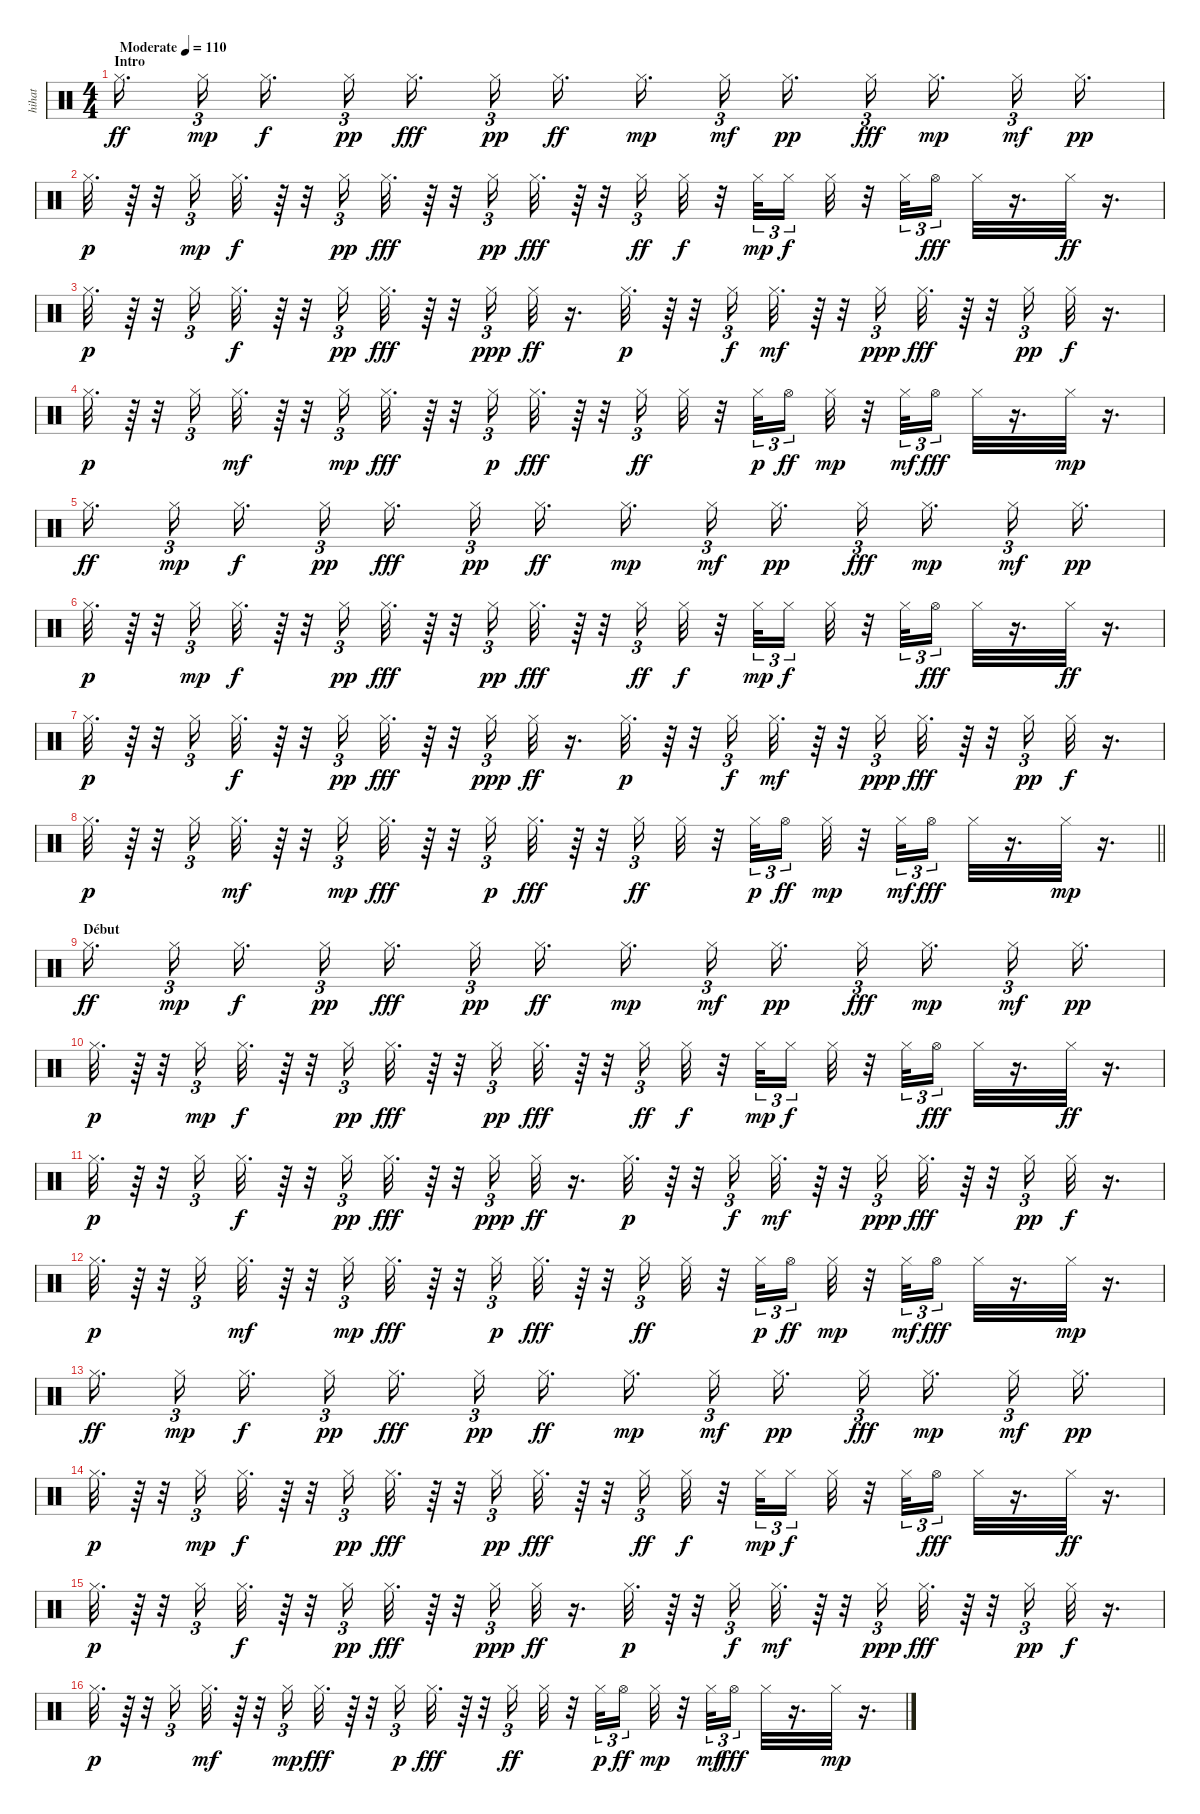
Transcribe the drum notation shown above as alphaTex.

\track ("hihat   " "hihat   ") {instrument percussion}
\staff {score}
\articulation defaults
\ts (4 4)
\section ("" "Intro")
\tempo (110 "Moderate")
\clef neutral
\ks c "Hi-Hat (closed)".16{d dy ff beam splitsecondary} "Hi-Hat (closed)".16{tu (3 2) dy mp beam splitsecondary} "Hi-Hat (closed)".16{d dy f} "Hi-Hat (closed)".16{tu (3 2) dy pp} "Hi-Hat (closed)".16{d dy fff beam splitsecondary} "Hi-Hat (closed)".16{tu (3 2) dy pp} "Hi-Hat (closed)".16{d dy ff} "Hi-Hat (closed)".16{d dy mp beam splitsecondary} "Hi-Hat (closed)".16{tu (3 2) dy mf beam splitsecondary} "Hi-Hat (closed)".16{d dy pp} "Hi-Hat (closed)".16{tu (3 2) dy fff} "Hi-Hat (closed)".16{d dy mp beam splitsecondary} "Hi-Hat (closed)".16{tu (3 2) dy mf} "Hi-Hat (closed)".16{d dy pp}
|
"Hi-Hat (closed)".32{d dy p} r.64 r.32 "Hi-Hat (closed)".16{tu (3 2) dy mp} "Hi-Hat (closed)".32{d dy f} r.64 r.32 "Hi-Hat (closed)".16{tu (3 2) dy pp} "Hi-Hat (closed)".32{d dy fff} r.64 r.32 "Hi-Hat (closed)".16{tu (3 2) dy pp} "Hi-Hat (closed)".32{d dy fff} r.64 r.32 "Hi-Hat (closed)".16{tu (3 2) dy ff} "Hi-Hat (closed)".32{dy f} r.32 "Hi-Hat (closed)".32{tu (3 2) dy mp} "Hi-Hat (closed)".16{tu (3 2) dy f beam splitsecondary} "Hi-Hat (closed)".32 r.32 "Hi-Hat (closed)".32{tu (3 2)} "Hi-Hat (open)".16{tu (3 2) dy fff} "Hi-Hat (closed)".32 r.16{d} "Hi-Hat (closed)".32{dy ff} r.16{d} |
"Hi-Hat (closed)".32{d dy p} r.64 r.32 "Hi-Hat (closed)".16{tu (3 2)} "Hi-Hat (closed)".32{d dy f} r.64 r.32 "Hi-Hat (closed)".16{tu (3 2) dy pp} "Hi-Hat (closed)".32{d dy fff} r.64 r.32 "Hi-Hat (closed)".16{tu (3 2) dy ppp} "Hi-Hat (closed)".32{dy ff} r.16{d} "Hi-Hat (closed)".32{d dy p} r.64 r.32 "Hi-Hat (closed)".16{tu (3 2) dy f} "Hi-Hat (closed)".32{d dy mf} r.64 r.32 "Hi-Hat (closed)".16{tu (3 2) dy ppp} "Hi-Hat (closed)".32{d dy fff} r.64 r.32 "Hi-Hat (closed)".16{tu (3 2) dy pp} "Hi-Hat (closed)".32{dy f} r.16{d} |
"Hi-Hat (closed)".32{d dy p} r.64 r.32 "Hi-Hat (closed)".16{tu (3 2)} "Hi-Hat (closed)".32{d dy mf} r.64 r.32 "Hi-Hat (closed)".16{tu (3 2) dy mp} "Hi-Hat (closed)".32{d dy fff} r.64 r.32 "Hi-Hat (closed)".16{tu (3 2) dy p} "Hi-Hat (closed)".32{d dy fff} r.64 r.32 "Hi-Hat (closed)".16{tu (3 2) dy ff} "Hi-Hat (closed)".32 r.32 "Hi-Hat (closed)".32{tu (3 2) dy p} "Hi-Hat (open)".16{tu (3 2) dy ff beam splitsecondary} "Hi-Hat (closed)".32{dy mp} r.32 "Hi-Hat (closed)".32{tu (3 2) dy mf} "Hi-Hat (open)".16{tu (3 2) dy fff} "Hi-Hat (closed)".32 r.16{d} "Hi-Hat (closed)".32{dy mp} r.16{d} |
"Hi-Hat (closed)".16{d dy ff beam splitsecondary} "Hi-Hat (closed)".16{tu (3 2) dy mp beam splitsecondary} "Hi-Hat (closed)".16{d dy f} "Hi-Hat (closed)".16{tu (3 2) dy pp} "Hi-Hat (closed)".16{d dy fff beam splitsecondary} "Hi-Hat (closed)".16{tu (3 2) dy pp} "Hi-Hat (closed)".16{d dy ff} "Hi-Hat (closed)".16{d dy mp beam splitsecondary} "Hi-Hat (closed)".16{tu (3 2) dy mf beam splitsecondary} "Hi-Hat (closed)".16{d dy pp} "Hi-Hat (closed)".16{tu (3 2) dy fff} "Hi-Hat (closed)".16{d dy mp beam splitsecondary} "Hi-Hat (closed)".16{tu (3 2) dy mf} "Hi-Hat (closed)".16{d dy pp} |
"Hi-Hat (closed)".32{d dy p} r.64 r.32 "Hi-Hat (closed)".16{tu (3 2) dy mp} "Hi-Hat (closed)".32{d dy f} r.64 r.32 "Hi-Hat (closed)".16{tu (3 2) dy pp} "Hi-Hat (closed)".32{d dy fff} r.64 r.32 "Hi-Hat (closed)".16{tu (3 2) dy pp} "Hi-Hat (closed)".32{d dy fff} r.64 r.32 "Hi-Hat (closed)".16{tu (3 2) dy ff} "Hi-Hat (closed)".32{dy f} r.32 "Hi-Hat (closed)".32{tu (3 2) dy mp} "Hi-Hat (closed)".16{tu (3 2) dy f beam splitsecondary} "Hi-Hat (closed)".32 r.32 "Hi-Hat (closed)".32{tu (3 2)} "Hi-Hat (open)".16{tu (3 2) dy fff} "Hi-Hat (closed)".32 r.16{d} "Hi-Hat (closed)".32{dy ff} r.16{d} |
"Hi-Hat (closed)".32{d dy p} r.64 r.32 "Hi-Hat (closed)".16{tu (3 2)} "Hi-Hat (closed)".32{d dy f} r.64 r.32 "Hi-Hat (closed)".16{tu (3 2) dy pp} "Hi-Hat (closed)".32{d dy fff} r.64 r.32 "Hi-Hat (closed)".16{tu (3 2) dy ppp} "Hi-Hat (closed)".32{dy ff} r.16{d} "Hi-Hat (closed)".32{d dy p} r.64 r.32 "Hi-Hat (closed)".16{tu (3 2) dy f} "Hi-Hat (closed)".32{d dy mf} r.64 r.32 "Hi-Hat (closed)".16{tu (3 2) dy ppp} "Hi-Hat (closed)".32{d dy fff} r.64 r.32 "Hi-Hat (closed)".16{tu (3 2) dy pp} "Hi-Hat (closed)".32{dy f} r.16{d} |
\barLineRight lightlight "Hi-Hat (closed)".32{d dy p}
r.64 r.32 "Hi-Hat (closed)".16{tu (3 2)} "Hi-Hat (closed)".32{d dy mf} r.64 r.32 "Hi-Hat (closed)".16{tu (3 2) dy mp} "Hi-Hat (closed)".32{d dy fff} r.64 r.32 "Hi-Hat (closed)".16{tu (3 2) dy p} "Hi-Hat (closed)".32{d dy fff} r.64 r.32 "Hi-Hat (closed)".16{tu (3 2) dy ff} "Hi-Hat (closed)".32 r.32 "Hi-Hat (closed)".32{tu (3 2) dy p} "Hi-Hat (open)".16{tu (3 2) dy ff beam splitsecondary} "Hi-Hat (closed)".32{dy mp} r.32 "Hi-Hat (closed)".32{tu (3 2) dy mf} "Hi-Hat (open)".16{tu (3 2) dy fff} "Hi-Hat (closed)".32 r.16{d} "Hi-Hat (closed)".32{dy mp} r.16{d} |
\section ("" "Début")
"Hi-Hat (closed)".16{d dy ff beam splitsecondary} "Hi-Hat (closed)".16{tu (3 2) dy mp beam splitsecondary} "Hi-Hat (closed)".16{d dy f} "Hi-Hat (closed)".16{tu (3 2) dy pp} "Hi-Hat (closed)".16{d dy fff beam splitsecondary} "Hi-Hat (closed)".16{tu (3 2) dy pp} "Hi-Hat (closed)".16{d dy ff} "Hi-Hat (closed)".16{d dy mp beam splitsecondary} "Hi-Hat (closed)".16{tu (3 2) dy mf beam splitsecondary} "Hi-Hat (closed)".16{d dy pp} "Hi-Hat (closed)".16{tu (3 2) dy fff} "Hi-Hat (closed)".16{d dy mp beam splitsecondary} "Hi-Hat (closed)".16{tu (3 2) dy mf} "Hi-Hat (closed)".16{d dy pp} |
"Hi-Hat (closed)".32{d dy p} r.64 r.32 "Hi-Hat (closed)".16{tu (3 2) dy mp} "Hi-Hat (closed)".32{d dy f} r.64 r.32 "Hi-Hat (closed)".16{tu (3 2) dy pp} "Hi-Hat (closed)".32{d dy fff} r.64 r.32 "Hi-Hat (closed)".16{tu (3 2) dy pp} "Hi-Hat (closed)".32{d dy fff} r.64 r.32 "Hi-Hat (closed)".16{tu (3 2) dy ff} "Hi-Hat (closed)".32{dy f} r.32 "Hi-Hat (closed)".32{tu (3 2) dy mp} "Hi-Hat (closed)".16{tu (3 2) dy f beam splitsecondary} "Hi-Hat (closed)".32 r.32 "Hi-Hat (closed)".32{tu (3 2)} "Hi-Hat (open)".16{tu (3 2) dy fff} "Hi-Hat (closed)".32 r.16{d} "Hi-Hat (closed)".32{dy ff} r.16{d} |
"Hi-Hat (closed)".32{d dy p} r.64 r.32 "Hi-Hat (closed)".16{tu (3 2)} "Hi-Hat (closed)".32{d dy f} r.64 r.32 "Hi-Hat (closed)".16{tu (3 2) dy pp} "Hi-Hat (closed)".32{d dy fff} r.64 r.32 "Hi-Hat (closed)".16{tu (3 2) dy ppp} "Hi-Hat (closed)".32{dy ff} r.16{d} "Hi-Hat (closed)".32{d dy p} r.64 r.32 "Hi-Hat (closed)".16{tu (3 2) dy f} "Hi-Hat (closed)".32{d dy mf} r.64 r.32 "Hi-Hat (closed)".16{tu (3 2) dy ppp} "Hi-Hat (closed)".32{d dy fff} r.64 r.32 "Hi-Hat (closed)".16{tu (3 2) dy pp} "Hi-Hat (closed)".32{dy f} r.16{d} |
"Hi-Hat (closed)".32{d dy p} r.64 r.32 "Hi-Hat (closed)".16{tu (3 2)} "Hi-Hat (closed)".32{d dy mf} r.64 r.32 "Hi-Hat (closed)".16{tu (3 2) dy mp} "Hi-Hat (closed)".32{d dy fff} r.64 r.32 "Hi-Hat (closed)".16{tu (3 2) dy p} "Hi-Hat (closed)".32{d dy fff} r.64 r.32 "Hi-Hat (closed)".16{tu (3 2) dy ff} "Hi-Hat (closed)".32 r.32 "Hi-Hat (closed)".32{tu (3 2) dy p} "Hi-Hat (open)".16{tu (3 2) dy ff beam splitsecondary} "Hi-Hat (closed)".32{dy mp} r.32 "Hi-Hat (closed)".32{tu (3 2) dy mf} "Hi-Hat (open)".16{tu (3 2) dy fff} "Hi-Hat (closed)".32 r.16{d} "Hi-Hat (closed)".32{dy mp} r.16{d} |
"Hi-Hat (closed)".16{d dy ff beam splitsecondary} "Hi-Hat (closed)".16{tu (3 2) dy mp beam splitsecondary} "Hi-Hat (closed)".16{d dy f} "Hi-Hat (closed)".16{tu (3 2) dy pp} "Hi-Hat (closed)".16{d dy fff beam splitsecondary} "Hi-Hat (closed)".16{tu (3 2) dy pp} "Hi-Hat (closed)".16{d dy ff} "Hi-Hat (closed)".16{d dy mp beam splitsecondary} "Hi-Hat (closed)".16{tu (3 2) dy mf beam splitsecondary} "Hi-Hat (closed)".16{d dy pp} "Hi-Hat (closed)".16{tu (3 2) dy fff} "Hi-Hat (closed)".16{d dy mp beam splitsecondary} "Hi-Hat (closed)".16{tu (3 2) dy mf} "Hi-Hat (closed)".16{d dy pp} |
"Hi-Hat (closed)".32{d dy p} r.64 r.32 "Hi-Hat (closed)".16{tu (3 2) dy mp} "Hi-Hat (closed)".32{d dy f} r.64 r.32 "Hi-Hat (closed)".16{tu (3 2) dy pp} "Hi-Hat (closed)".32{d dy fff} r.64 r.32 "Hi-Hat (closed)".16{tu (3 2) dy pp} "Hi-Hat (closed)".32{d dy fff} r.64 r.32 "Hi-Hat (closed)".16{tu (3 2) dy ff} "Hi-Hat (closed)".32{dy f} r.32 "Hi-Hat (closed)".32{tu (3 2) dy mp} "Hi-Hat (closed)".16{tu (3 2) dy f beam splitsecondary} "Hi-Hat (closed)".32 r.32 "Hi-Hat (closed)".32{tu (3 2)} "Hi-Hat (open)".16{tu (3 2) dy fff} "Hi-Hat (closed)".32 r.16{d} "Hi-Hat (closed)".32{dy ff} r.16{d} |
"Hi-Hat (closed)".32{d dy p} r.64 r.32 "Hi-Hat (closed)".16{tu (3 2)} "Hi-Hat (closed)".32{d dy f} r.64 r.32 "Hi-Hat (closed)".16{tu (3 2) dy pp} "Hi-Hat (closed)".32{d dy fff} r.64 r.32 "Hi-Hat (closed)".16{tu (3 2) dy ppp} "Hi-Hat (closed)".32{dy ff} r.16{d} "Hi-Hat (closed)".32{d dy p} r.64 r.32 "Hi-Hat (closed)".16{tu (3 2) dy f} "Hi-Hat (closed)".32{d dy mf} r.64 r.32 "Hi-Hat (closed)".16{tu (3 2) dy ppp} "Hi-Hat (closed)".32{d dy fff} r.64 r.32 "Hi-Hat (closed)".16{tu (3 2) dy pp} "Hi-Hat (closed)".32{dy f} r.16{d} |
"Hi-Hat (closed)".32{d dy p} r.64 r.32 "Hi-Hat (closed)".16{tu (3 2)} "Hi-Hat (closed)".32{d dy mf} r.64 r.32 "Hi-Hat (closed)".16{tu (3 2) dy mp} "Hi-Hat (closed)".32{d dy fff} r.64 r.32 "Hi-Hat (closed)".16{tu (3 2) dy p} "Hi-Hat (closed)".32{d dy fff} r.64 r.32 "Hi-Hat (closed)".16{tu (3 2) dy ff} "Hi-Hat (closed)".32 r.32 "Hi-Hat (closed)".32{tu (3 2) dy p} "Hi-Hat (open)".16{tu (3 2) dy ff beam splitsecondary} "Hi-Hat (closed)".32{dy mp} r.32 "Hi-Hat (closed)".32{tu (3 2) dy mf} "Hi-Hat (open)".16{tu (3 2) dy fff} "Hi-Hat (closed)".32 r.16{d} "Hi-Hat (closed)".32{dy mp} r.16{d}
